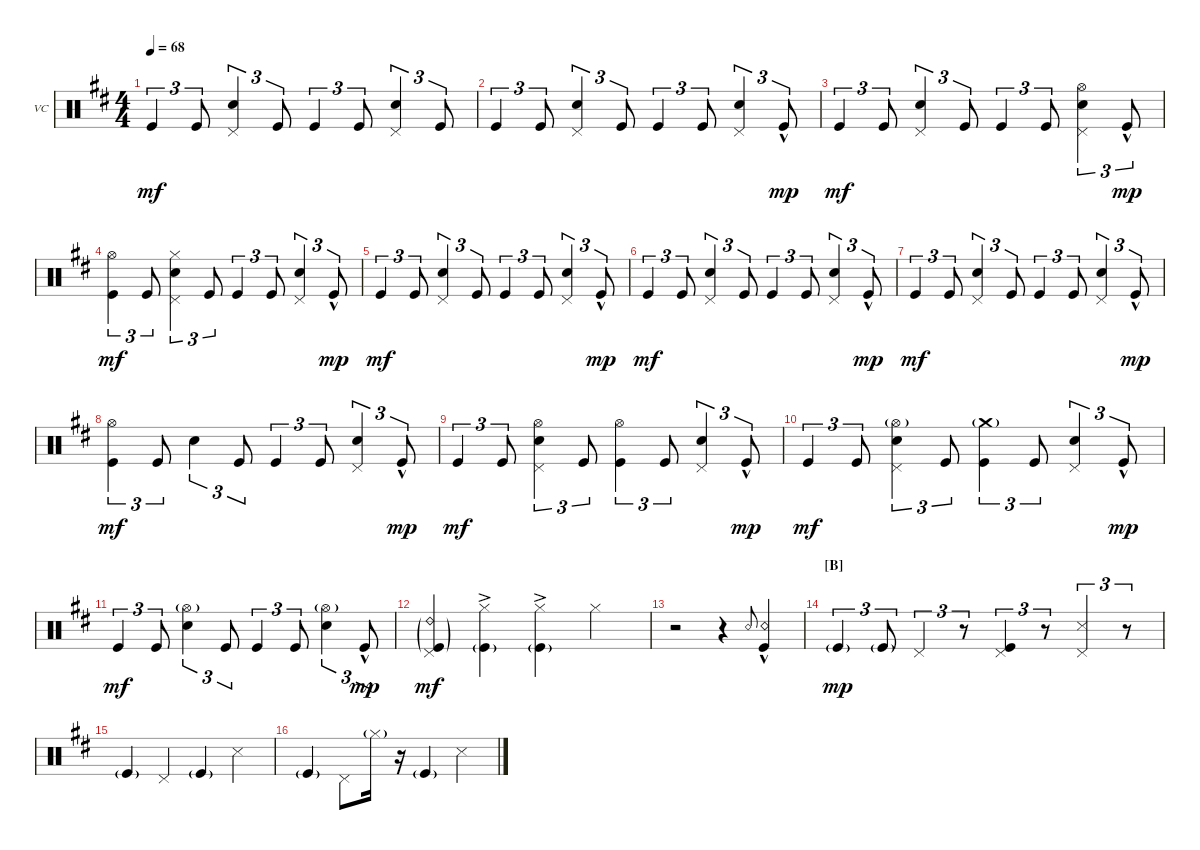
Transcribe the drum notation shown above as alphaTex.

\defaultSystemsLayout 4
\bracketExtendMode nobrackets
\firstSystemTrackNameOrientation horizontal
\otherSystemsTrackNameOrientation horizontal
\track ("Vinnie Colaiuta" "VC") {instrument percussion}
\staff {score}
\articulation defaults
\ts (4 4)
\tempo 68
\clef neutral
\ks bminor "Kick (hit)".4{tu (3 2) dy mf} "Kick (hit)".8{tu (3 2)}
("Snare (hit) 2" "Pedal Hi-Hat (hit)").4{tu (3 2)} "Kick (hit)".8{tu (3 2)} "Kick (hit)".4{tu (3 2)} "Kick (hit)".8{tu (3 2)} ("Snare (hit) 2" "Pedal Hi-Hat (hit)").4{tu (3 2)} "Kick (hit)".8{tu (3 2)} |
"Kick (hit)".4{tu (3 2)} "Kick (hit)".8{tu (3 2)} ("Snare (hit) 2" "Pedal Hi-Hat (hit)").4{tu (3 2)} "Kick (hit)".8{tu (3 2)} "Kick (hit)".4{tu (3 2)} "Kick (hit)".8{tu (3 2)} ("Snare (hit) 2" "Pedal Hi-Hat (hit)").4{tu (3 2)} "Kick (hit)"{hac}.8{tu (3 2) dy mp} |
"Kick (hit)".4{tu (3 2) dy mf} "Kick (hit)".8{tu (3 2)} ("Snare (hit) 2" "Pedal Hi-Hat (hit)").4{tu (3 2)} "Kick (hit)".8{tu (3 2)} "Kick (hit)".4{tu (3 2)} "Kick (hit)".8{tu (3 2)} ("Snare (hit) 2" "Pedal Hi-Hat (hit)" "Hi-Hat (open)").4{tu (3 2)} "Kick (hit)"{hac}.8{tu (3 2) dy mp} |
("Kick (hit)" "Hi-Hat (open)").4{tu (3 2) dy mf} "Kick (hit)".8{tu (3 2)} ("Snare (hit) 2" "Pedal Hi-Hat (hit)" "Hi-Hat (closed)").4{tu (3 2)} "Kick (hit)".8{tu (3 2)} "Kick (hit)".4{tu (3 2)} "Kick (hit)".8{tu (3 2)} ("Snare (hit) 2" "Pedal Hi-Hat (hit)").4{tu (3 2)} "Kick (hit)"{hac}.8{tu (3 2) dy mp} |
"Kick (hit)".4{tu (3 2) dy mf} "Kick (hit)".8{tu (3 2)} ("Snare (hit) 2" "Pedal Hi-Hat (hit)").4{tu (3 2)} "Kick (hit)".8{tu (3 2)} "Kick (hit)".4{tu (3 2)} "Kick (hit)".8{tu (3 2)} ("Snare (hit) 2" "Pedal Hi-Hat (hit)").4{tu (3 2)} "Kick (hit)"{hac}.8{tu (3 2) dy mp} |
"Kick (hit)".4{tu (3 2) dy mf} "Kick (hit)".8{tu (3 2)} ("Snare (hit) 2" "Pedal Hi-Hat (hit)").4{tu (3 2)} "Kick (hit)".8{tu (3 2)} "Kick (hit)".4{tu (3 2)} "Kick (hit)".8{tu (3 2)} ("Snare (hit) 2" "Pedal Hi-Hat (hit)").4{tu (3 2)} "Kick (hit)"{hac}.8{tu (3 2) dy mp} |
"Kick (hit)".4{tu (3 2) dy mf} "Kick (hit)".8{tu (3 2)} ("Snare (hit) 2" "Pedal Hi-Hat (hit)").4{tu (3 2)} "Kick (hit)".8{tu (3 2)} "Kick (hit)".4{tu (3 2)} "Kick (hit)".8{tu (3 2)} ("Snare (hit) 2" "Pedal Hi-Hat (hit)").4{tu (3 2)} "Kick (hit)"{hac}.8{tu (3 2) dy mp} |
("Kick (hit)" "Hi-Hat (open)").4{tu (3 2) dy mf} "Kick (hit)".8{tu (3 2)} "Snare (hit) 2".4{tu (3 2)} "Kick (hit)".8{tu (3 2)} "Kick (hit)".4{tu (3 2)} "Kick (hit)".8{tu (3 2)} ("Snare (hit) 2" "Pedal Hi-Hat (hit)").4{tu (3 2)} "Kick (hit)"{hac}.8{tu (3 2) dy mp} |
"Kick (hit)".4{tu (3 2) dy mf} "Kick (hit)".8{tu (3 2)} ("Snare (hit) 2" "Pedal Hi-Hat (hit)" "Hi-Hat (open)").4{tu (3 2)} "Kick (hit)".8{tu (3 2)} ("Kick (hit)" "Hi-Hat (open)").4{tu (3 2)} "Kick (hit)".8{tu (3 2)} ("Snare (hit) 2" "Pedal Hi-Hat (hit)").4{tu (3 2)} "Kick (hit)"{hac}.8{tu (3 2) dy mp} |
"Kick (hit)".4{tu (3 2) dy mf} "Kick (hit)".8{tu (3 2)} ("Snare (hit) 2" "Pedal Hi-Hat (hit)" "Hi-Hat (open)"{g}).4{tu (3 2)} "Kick (hit)".8{tu (3 2)} ("Kick (hit)" "Crash medium (hit)"{g}).4{tu (3 2)} "Kick (hit)".8{tu (3 2)} ("Snare (hit) 2" "Pedal Hi-Hat (hit)").4{tu (3 2)} "Kick (hit)"{hac}.8{tu (3 2) dy mp} |
"Kick (hit)".4{tu (3 2) dy mf} "Kick (hit)".8{tu (3 2)} ("Snare (hit) 2" "Hi-Hat (open)"{g}).4{tu (3 2)} "Kick (hit)".8{tu (3 2)} "Kick (hit)".4{tu (3 2)} "Kick (hit)".8{tu (3 2)} ("Snare (hit) 2" "Hi-Hat (open)"{g}).4{tu (3 2)} "Kick (hit)"{hac}.8{tu (3 2) dy mp} |
("Kick (hit)"{g} "Pedal Hi-Hat (hit)" "Ride (bell) 2"{g}).4{dy mf} ("Kick (hit)"{g} "Hi-Hat (closed)"{ac}).4 ("Kick (hit)"{g} "Hi-Hat (closed)"{ac}).4 "Hi-Hat (closed)".4 |
r.2 r.4 "Snare (rim shot)".8{gr onbeat} ("Snare (rim shot)"{hac} "Kick (hit)").4 |
\section ("B" "")
"Kick (hit)"{g}.4{tu (3 2) dy mp} "Kick (hit)"{g}.8{tu (3 2)} "Pedal Hi-Hat (hit)".4{tu (3 2)} r.8{tu (3 2)} ("Pedal Hi-Hat (hit)" "Kick (hit)").4{tu (3 2)} r.8{tu (3 2)} ("Snare (side stick) 3" "Pedal Hi-Hat (hit)").4{tu (3 2)} r.8{tu (3 2)} |
"Kick (hit)"{g}.4 "Pedal Hi-Hat (hit)".4 "Kick (hit)"{g}.4 "Snare (side stick) 3".4 |
"Kick (hit)"{g}.4 "Pedal Hi-Hat (hit)".8 "Hi-Hat (closed)"{g}.16 r.16 "Kick (hit)"{g}.4 "Snare (side stick) 3".4
